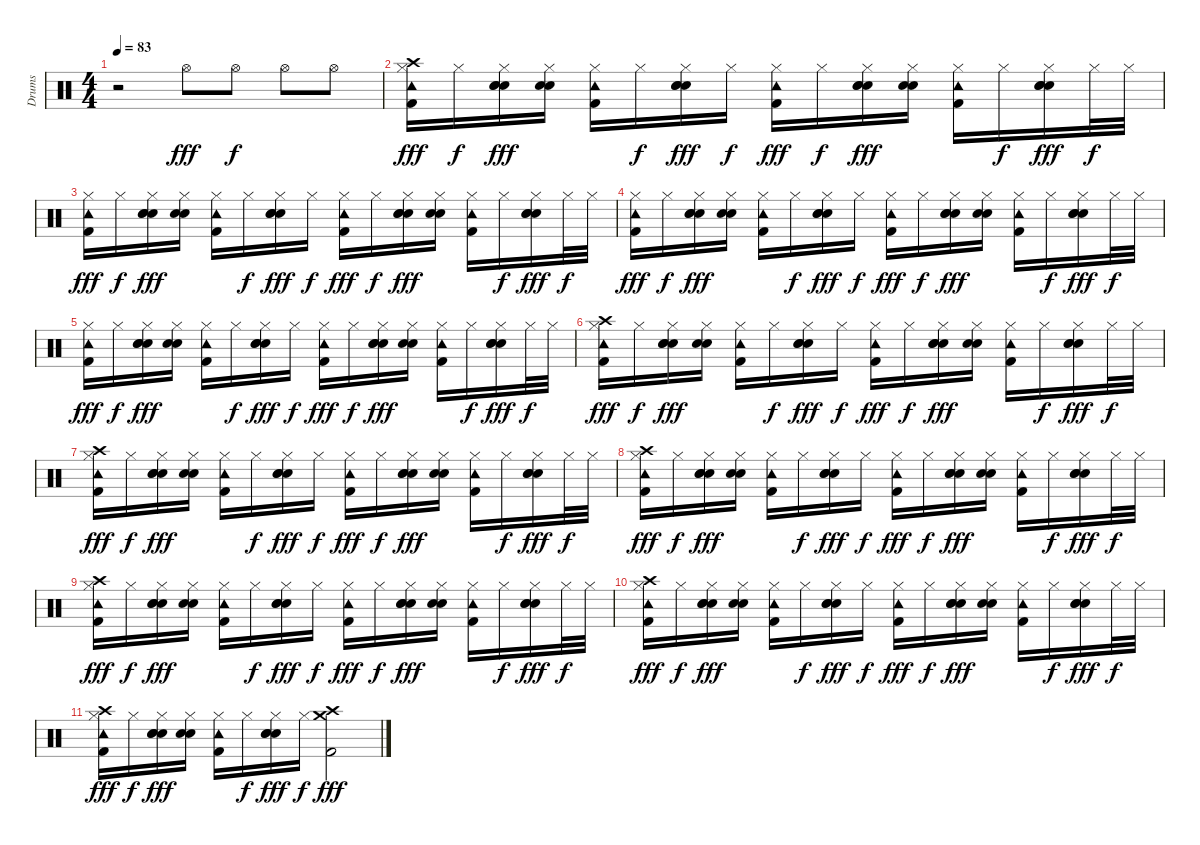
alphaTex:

\track ("Drums" "Drums") {instrument percussion}
\staff {score}
\articulation defaults
\ts (4 4)
\tempo 83
\clef neutral
\ks c
r.2{dy fff} "Hi-Hat (open)".8 "Hi-Hat (open)".8{dy f} "Hi-Hat (open)".8 "Hi-Hat (open)".8 |
("Hi-Hat (closed)" "Kick (hit) 2" "Tambourine (hit)" "Crash high (hit)").16{dy fff} "Hi-Hat (closed)".16{dy f} ("Hi-Hat (closed)" "Electric Snare (hit)" "Hand Clap (hit)" "Hand Clap (hit)").16{dy fff} ("Hi-Hat (closed)" "Hand Clap (hit)" "Hand Clap (hit)").16 ("Hi-Hat (closed)" "Kick (hit) 2" "Tambourine (hit)").16 "Hi-Hat (closed)".16{dy f} ("Hi-Hat (closed)" "Electric Snare (hit)" "Hand Clap (hit)" "Hand Clap (hit)").16{dy fff} "Hi-Hat (closed)".16{dy f} ("Hi-Hat (closed)" "Kick (hit) 2" "Tambourine (hit)").16{dy fff} "Hi-Hat (closed)".16{dy f} ("Hi-Hat (closed)" "Electric Snare (hit)" "Hand Clap (hit)" "Hand Clap (hit)").16{dy fff} ("Hi-Hat (closed)" "Hand Clap (hit)" "Hand Clap (hit)").16 ("Hi-Hat (closed)" "Kick (hit) 2" "Tambourine (hit)").16 "Hi-Hat (closed)".16{dy f} ("Hi-Hat (closed)" "Electric Snare (hit)" "Hand Clap (hit)" "Hand Clap (hit)").16{dy fff} "Hi-Hat (closed)".32{dy f} "Hi-Hat (closed)".32 |
("Hi-Hat (closed)" "Kick (hit) 2" "Tambourine (hit)").16{dy fff} "Hi-Hat (closed)".16{dy f} ("Hi-Hat (closed)" "Electric Snare (hit)" "Hand Clap (hit)" "Hand Clap (hit)").16{dy fff} ("Hi-Hat (closed)" "Hand Clap (hit)" "Hand Clap (hit)").16 ("Hi-Hat (closed)" "Kick (hit) 2" "Tambourine (hit)").16 "Hi-Hat (closed)".16{dy f} ("Hi-Hat (closed)" "Electric Snare (hit)" "Hand Clap (hit)" "Hand Clap (hit)").16{dy fff} "Hi-Hat (closed)".16{dy f} ("Hi-Hat (closed)" "Kick (hit) 2" "Tambourine (hit)").16{dy fff} "Hi-Hat (closed)".16{dy f} ("Hi-Hat (closed)" "Electric Snare (hit)" "Hand Clap (hit)" "Hand Clap (hit)").16{dy fff} ("Hi-Hat (closed)" "Hand Clap (hit)" "Hand Clap (hit)").16 ("Hi-Hat (closed)" "Kick (hit) 2" "Tambourine (hit)").16 "Hi-Hat (closed)".16{dy f} ("Hi-Hat (closed)" "Electric Snare (hit)" "Hand Clap (hit)" "Hand Clap (hit)").16{dy fff} "Hi-Hat (closed)".32{dy f} "Hi-Hat (closed)".32 |
("Hi-Hat (closed)" "Kick (hit) 2" "Tambourine (hit)").16{dy fff} "Hi-Hat (closed)".16{dy f} ("Hi-Hat (closed)" "Electric Snare (hit)" "Hand Clap (hit)" "Hand Clap (hit)").16{dy fff} ("Hi-Hat (closed)" "Hand Clap (hit)" "Hand Clap (hit)").16 ("Hi-Hat (closed)" "Kick (hit) 2" "Tambourine (hit)").16 "Hi-Hat (closed)".16{dy f} ("Hi-Hat (closed)" "Electric Snare (hit)" "Hand Clap (hit)" "Hand Clap (hit)").16{dy fff} "Hi-Hat (closed)".16{dy f} ("Hi-Hat (closed)" "Kick (hit) 2" "Tambourine (hit)").16{dy fff} "Hi-Hat (closed)".16{dy f} ("Hi-Hat (closed)" "Electric Snare (hit)" "Hand Clap (hit)" "Hand Clap (hit)").16{dy fff} ("Hi-Hat (closed)" "Hand Clap (hit)" "Hand Clap (hit)").16 ("Hi-Hat (closed)" "Kick (hit) 2" "Tambourine (hit)").16 "Hi-Hat (closed)".16{dy f} ("Hi-Hat (closed)" "Electric Snare (hit)" "Hand Clap (hit)" "Hand Clap (hit)").16{dy fff} "Hi-Hat (closed)".32{dy f} "Hi-Hat (closed)".32 |
("Hi-Hat (closed)" "Kick (hit) 2" "Tambourine (hit)").16{dy fff} "Hi-Hat (closed)".16{dy f} ("Hi-Hat (closed)" "Electric Snare (hit)" "Hand Clap (hit)" "Hand Clap (hit)").16{dy fff} ("Hi-Hat (closed)" "Hand Clap (hit)" "Hand Clap (hit)").16 ("Hi-Hat (closed)" "Kick (hit) 2" "Tambourine (hit)").16 "Hi-Hat (closed)".16{dy f} ("Hi-Hat (closed)" "Electric Snare (hit)" "Hand Clap (hit)" "Hand Clap (hit)").16{dy fff} "Hi-Hat (closed)".16{dy f} ("Hi-Hat (closed)" "Kick (hit) 2" "Tambourine (hit)").16{dy fff} "Hi-Hat (closed)".16{dy f} ("Hi-Hat (closed)" "Electric Snare (hit)" "Hand Clap (hit)" "Hand Clap (hit)").16{dy fff} ("Hi-Hat (closed)" "Hand Clap (hit)" "Hand Clap (hit)").16 ("Hi-Hat (closed)" "Kick (hit) 2" "Tambourine (hit)").16 "Hi-Hat (closed)".16{dy f} ("Hi-Hat (closed)" "Electric Snare (hit)" "Hand Clap (hit)" "Hand Clap (hit)").16{dy fff} "Hi-Hat (closed)".32{dy f} "Hi-Hat (closed)".32 |
("Hi-Hat (closed)" "Kick (hit) 2" "Tambourine (hit)" "Crash high (hit)").16{dy fff} "Hi-Hat (closed)".16{dy f} ("Hi-Hat (closed)" "Electric Snare (hit)" "Hand Clap (hit)" "Hand Clap (hit)").16{dy fff} ("Hi-Hat (closed)" "Hand Clap (hit)" "Hand Clap (hit)").16 ("Hi-Hat (closed)" "Kick (hit) 2" "Tambourine (hit)").16 "Hi-Hat (closed)".16{dy f} ("Hi-Hat (closed)" "Electric Snare (hit)" "Hand Clap (hit)" "Hand Clap (hit)").16{dy fff} "Hi-Hat (closed)".16{dy f} ("Hi-Hat (closed)" "Kick (hit) 2" "Tambourine (hit)").16{dy fff} "Hi-Hat (closed)".16{dy f} ("Hi-Hat (closed)" "Electric Snare (hit)" "Hand Clap (hit)" "Hand Clap (hit)").16{dy fff} ("Hi-Hat (closed)" "Hand Clap (hit)" "Hand Clap (hit)").16 ("Hi-Hat (closed)" "Kick (hit) 2" "Tambourine (hit)").16 "Hi-Hat (closed)".16{dy f} ("Hi-Hat (closed)" "Electric Snare (hit)" "Hand Clap (hit)" "Hand Clap (hit)").16{dy fff} "Hi-Hat (closed)".32{dy f} "Hi-Hat (closed)".32 |
("Hi-Hat (closed)" "Kick (hit) 2" "Tambourine (hit)" "Crash high (hit)").16{dy fff} "Hi-Hat (closed)".16{dy f} ("Hi-Hat (closed)" "Electric Snare (hit)" "Hand Clap (hit)" "Hand Clap (hit)").16{dy fff} ("Hi-Hat (closed)" "Hand Clap (hit)" "Hand Clap (hit)").16 ("Hi-Hat (closed)" "Kick (hit) 2" "Tambourine (hit)").16 "Hi-Hat (closed)".16{dy f} ("Hi-Hat (closed)" "Electric Snare (hit)" "Hand Clap (hit)" "Hand Clap (hit)").16{dy fff} "Hi-Hat (closed)".16{dy f} ("Hi-Hat (closed)" "Kick (hit) 2" "Tambourine (hit)").16{dy fff} "Hi-Hat (closed)".16{dy f} ("Hi-Hat (closed)" "Electric Snare (hit)" "Hand Clap (hit)" "Hand Clap (hit)").16{dy fff} ("Hi-Hat (closed)" "Hand Clap (hit)" "Hand Clap (hit)").16 ("Hi-Hat (closed)" "Kick (hit) 2" "Tambourine (hit)").16 "Hi-Hat (closed)".16{dy f} ("Hi-Hat (closed)" "Electric Snare (hit)" "Hand Clap (hit)" "Hand Clap (hit)").16{dy fff} "Hi-Hat (closed)".32{dy f} "Hi-Hat (closed)".32 |
("Hi-Hat (closed)" "Kick (hit) 2" "Tambourine (hit)" "Crash high (hit)").16{dy fff} "Hi-Hat (closed)".16{dy f} ("Hi-Hat (closed)" "Electric Snare (hit)" "Hand Clap (hit)" "Hand Clap (hit)").16{dy fff} ("Hi-Hat (closed)" "Hand Clap (hit)" "Hand Clap (hit)").16 ("Hi-Hat (closed)" "Kick (hit) 2" "Tambourine (hit)").16 "Hi-Hat (closed)".16{dy f} ("Hi-Hat (closed)" "Electric Snare (hit)" "Hand Clap (hit)" "Hand Clap (hit)").16{dy fff} "Hi-Hat (closed)".16{dy f} ("Hi-Hat (closed)" "Kick (hit) 2" "Tambourine (hit)").16{dy fff} "Hi-Hat (closed)".16{dy f} ("Hi-Hat (closed)" "Electric Snare (hit)" "Hand Clap (hit)" "Hand Clap (hit)").16{dy fff} ("Hi-Hat (closed)" "Hand Clap (hit)" "Hand Clap (hit)").16 ("Hi-Hat (closed)" "Kick (hit) 2" "Tambourine (hit)").16 "Hi-Hat (closed)".16{dy f} ("Hi-Hat (closed)" "Electric Snare (hit)" "Hand Clap (hit)" "Hand Clap (hit)").16{dy fff} "Hi-Hat (closed)".32{dy f} "Hi-Hat (closed)".32 |
("Hi-Hat (closed)" "Kick (hit) 2" "Tambourine (hit)" "Crash high (hit)").16{dy fff} "Hi-Hat (closed)".16{dy f} ("Hi-Hat (closed)" "Electric Snare (hit)" "Hand Clap (hit)" "Hand Clap (hit)").16{dy fff} ("Hi-Hat (closed)" "Hand Clap (hit)" "Hand Clap (hit)").16 ("Hi-Hat (closed)" "Kick (hit) 2" "Tambourine (hit)").16 "Hi-Hat (closed)".16{dy f} ("Hi-Hat (closed)" "Electric Snare (hit)" "Hand Clap (hit)" "Hand Clap (hit)").16{dy fff} "Hi-Hat (closed)".16{dy f} ("Hi-Hat (closed)" "Kick (hit) 2" "Tambourine (hit)").16{dy fff} "Hi-Hat (closed)".16{dy f} ("Hi-Hat (closed)" "Electric Snare (hit)" "Hand Clap (hit)" "Hand Clap (hit)").16{dy fff} ("Hi-Hat (closed)" "Hand Clap (hit)" "Hand Clap (hit)").16 ("Hi-Hat (closed)" "Kick (hit) 2" "Tambourine (hit)").16 "Hi-Hat (closed)".16{dy f} ("Hi-Hat (closed)" "Electric Snare (hit)" "Hand Clap (hit)" "Hand Clap (hit)").16{dy fff} "Hi-Hat (closed)".32{dy f} "Hi-Hat (closed)".32 |
("Hi-Hat (closed)" "Kick (hit) 2" "Tambourine (hit)" "Crash high (hit)").16{dy fff} "Hi-Hat (closed)".16{dy f} ("Hi-Hat (closed)" "Electric Snare (hit)" "Hand Clap (hit)" "Hand Clap (hit)").16{dy fff} ("Hi-Hat (closed)" "Hand Clap (hit)" "Hand Clap (hit)").16 ("Hi-Hat (closed)" "Kick (hit) 2" "Tambourine (hit)").16 "Hi-Hat (closed)".16{dy f} ("Hi-Hat (closed)" "Electric Snare (hit)" "Hand Clap (hit)" "Hand Clap (hit)").16{dy fff} "Hi-Hat (closed)".16{dy f} ("Hi-Hat (closed)" "Kick (hit) 2" "Tambourine (hit)").16{dy fff} "Hi-Hat (closed)".16{dy f} ("Hi-Hat (closed)" "Electric Snare (hit)" "Hand Clap (hit)" "Hand Clap (hit)").16{dy fff} ("Hi-Hat (closed)" "Hand Clap (hit)" "Hand Clap (hit)").16 ("Hi-Hat (closed)" "Kick (hit) 2" "Tambourine (hit)").16 "Hi-Hat (closed)".16{dy f} ("Hi-Hat (closed)" "Electric Snare (hit)" "Hand Clap (hit)" "Hand Clap (hit)").16{dy fff} "Hi-Hat (closed)".32{dy f} "Hi-Hat (closed)".32 |
("Hi-Hat (closed)" "Kick (hit) 2" "Tambourine (hit)" "Crash high (hit)").16{dy fff} "Hi-Hat (closed)".16{dy f} ("Hi-Hat (closed)" "Electric Snare (hit)" "Hand Clap (hit)" "Hand Clap (hit)").16{dy fff} ("Hi-Hat (closed)" "Hand Clap (hit)" "Hand Clap (hit)").16 ("Hi-Hat (closed)" "Kick (hit) 2" "Tambourine (hit)").16 "Hi-Hat (closed)".16{dy f} ("Hi-Hat (closed)" "Electric Snare (hit)" "Hand Clap (hit)" "Hand Clap (hit)").16{dy fff} "Hi-Hat (closed)".16{dy f} ("Crash medium (hit)" "Kick (hit) 2" "Crash high (hit)").2{dy fff}
